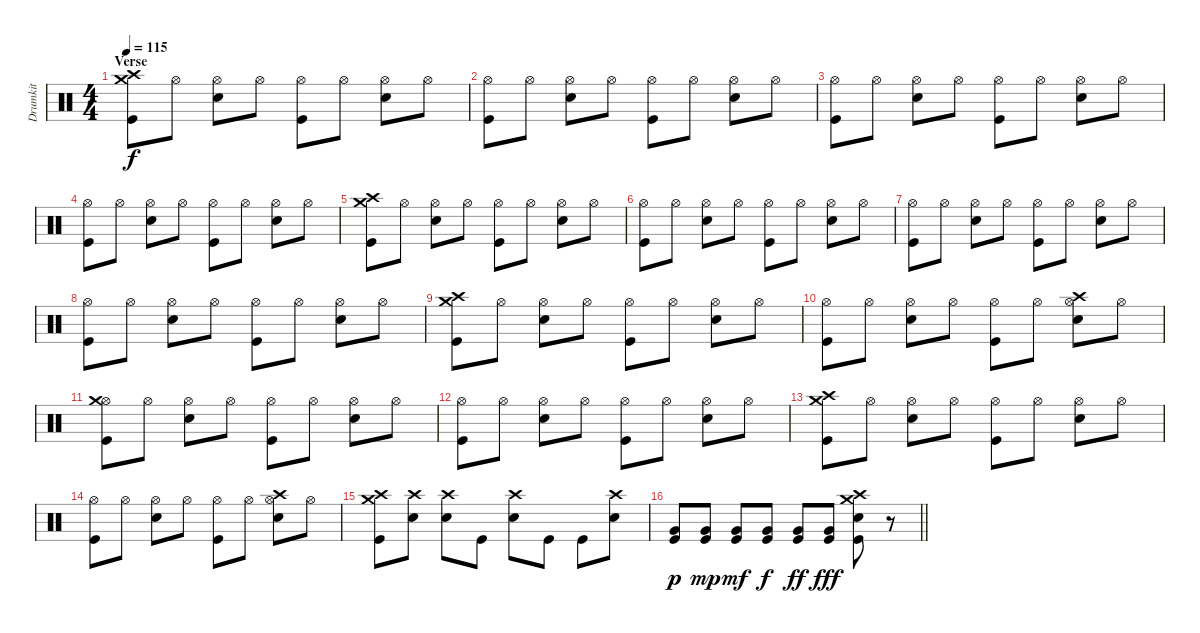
\track ("Drumkit" "Drumkit") {instrument percussion}
\staff {score}
\articulation defaults
\ts (4 4)
\section ("" "Verse")
\tempo 115
\clef neutral
\ks c
("Crash high (hit)" "Crash medium (hit)" "Kick (hit)").8{dy f} "Hi-Hat (open)".8 ("Hi-Hat (open)" "Snare (hit) 2").8 "Hi-Hat (open)".8 ("Hi-Hat (open)" "Kick (hit)").8 "Hi-Hat (open)".8 ("Hi-Hat (open)" "Snare (hit) 2").8 "Hi-Hat (open)".8 |
("Hi-Hat (open)" "Kick (hit)").8 "Hi-Hat (open)".8 ("Hi-Hat (open)" "Snare (hit) 2").8 "Hi-Hat (open)".8 ("Hi-Hat (open)" "Kick (hit)").8 "Hi-Hat (open)".8 ("Hi-Hat (open)" "Snare (hit) 2").8 "Hi-Hat (open)".8 |
("Hi-Hat (open)" "Kick (hit)").8 "Hi-Hat (open)".8 ("Hi-Hat (open)" "Snare (hit) 2").8 "Hi-Hat (open)".8 ("Hi-Hat (open)" "Kick (hit)").8 "Hi-Hat (open)".8 ("Hi-Hat (open)" "Snare (hit) 2").8 "Hi-Hat (open)".8 |
("Hi-Hat (open)" "Kick (hit)").8 "Hi-Hat (open)".8 ("Hi-Hat (open)" "Snare (hit) 2").8 "Hi-Hat (open)".8 ("Hi-Hat (open)" "Kick (hit)").8 "Hi-Hat (open)".8 ("Hi-Hat (open)" "Snare (hit) 2").8 "Hi-Hat (open)".8 |
("Crash high (hit)" "Crash medium (hit)" "Kick (hit)").8 "Hi-Hat (open)".8 ("Hi-Hat (open)" "Snare (hit) 2").8 "Hi-Hat (open)".8 ("Hi-Hat (open)" "Kick (hit)").8 "Hi-Hat (open)".8 ("Hi-Hat (open)" "Snare (hit) 2").8 "Hi-Hat (open)".8 |
("Hi-Hat (open)" "Kick (hit)").8 "Hi-Hat (open)".8 ("Hi-Hat (open)" "Snare (hit) 2").8 "Hi-Hat (open)".8 ("Hi-Hat (open)" "Kick (hit)").8 "Hi-Hat (open)".8 ("Hi-Hat (open)" "Snare (hit) 2").8 "Hi-Hat (open)".8 |
("Hi-Hat (open)" "Kick (hit)").8 "Hi-Hat (open)".8 ("Hi-Hat (open)" "Snare (hit) 2").8 "Hi-Hat (open)".8 ("Hi-Hat (open)" "Kick (hit)").8 "Hi-Hat (open)".8 ("Hi-Hat (open)" "Snare (hit) 2").8 "Hi-Hat (open)".8 |
("Hi-Hat (open)" "Kick (hit)").8 "Hi-Hat (open)".8 ("Hi-Hat (open)" "Snare (hit) 2").8 "Hi-Hat (open)".8 ("Hi-Hat (open)" "Kick (hit)").8 "Hi-Hat (open)".8 ("Hi-Hat (open)" "Snare (hit) 2").8 "Hi-Hat (open)".8 |
("Crash high (hit)" "Crash medium (hit)" "Kick (hit)").8 "Hi-Hat (open)".8 ("Hi-Hat (open)" "Snare (hit) 2").8 "Hi-Hat (open)".8 ("Hi-Hat (open)" "Kick (hit)").8 "Hi-Hat (open)".8 ("Hi-Hat (open)" "Snare (hit) 2").8 "Hi-Hat (open)".8 |
("Hi-Hat (open)" "Kick (hit)").8 "Hi-Hat (open)".8 ("Hi-Hat (open)" "Snare (hit) 2").8 "Hi-Hat (open)".8 ("Hi-Hat (open)" "Kick (hit)").8 "Hi-Hat (open)".8 ("Hi-Hat (open)" "Crash high (hit)" "Snare (hit) 2").8 "Hi-Hat (open)".8 |
("Hi-Hat (open)" "Crash medium (hit)" "Kick (hit)").8 "Hi-Hat (open)".8 ("Hi-Hat (open)" "Snare (hit) 2").8 "Hi-Hat (open)".8 ("Hi-Hat (open)" "Kick (hit)").8 "Hi-Hat (open)".8 ("Hi-Hat (open)" "Snare (hit) 2").8 "Hi-Hat (open)".8 |
("Hi-Hat (open)" "Kick (hit)").8 "Hi-Hat (open)".8 ("Hi-Hat (open)" "Snare (hit) 2").8 "Hi-Hat (open)".8 ("Hi-Hat (open)" "Kick (hit)").8 "Hi-Hat (open)".8 ("Hi-Hat (open)" "Snare (hit) 2").8 "Hi-Hat (open)".8 |
("Crash high (hit)" "Crash medium (hit)" "Kick (hit)").8 "Hi-Hat (open)".8 ("Hi-Hat (open)" "Snare (hit) 2").8 "Hi-Hat (open)".8 ("Hi-Hat (open)" "Kick (hit)").8 "Hi-Hat (open)".8 ("Hi-Hat (open)" "Snare (hit) 2").8 "Hi-Hat (open)".8 |
("Hi-Hat (open)" "Kick (hit)").8 "Hi-Hat (open)".8 ("Hi-Hat (open)" "Snare (hit) 2").8 "Hi-Hat (open)".8 ("Hi-Hat (open)" "Kick (hit)").8 "Hi-Hat (open)".8 ("Hi-Hat (open)" "Crash high (hit)" "Snare (hit) 2").8 "Hi-Hat (open)".8 |
("Crash high (hit)" "Crash medium (hit)" "Kick (hit)").8 ("Crash high (hit)" "Snare (hit) 2").8 ("Crash high (hit)" "Snare (hit) 2").8 "Kick (hit)".8 ("Crash high (hit)" "Snare (hit) 2").8 "Kick (hit)".8 "Kick (hit)".8 ("Crash high (hit)" "Snare (hit) 2").8 |
\barLineRight lightlight
("Very Low Tom (hit)" "Kick (hit)").8{dy p} ("Very Low Tom (hit)" "Kick (hit)").8{dy mp} ("Very Low Tom (hit)" "Kick (hit)").8{dy mf} ("Very Low Tom (hit)" "Kick (hit)").8{dy f} ("Very Low Tom (hit)" "Kick (hit)").8{dy ff} ("Very Low Tom (hit)" "Kick (hit)").8{dy fff} ("Kick (hit)" "Crash medium (hit)" "Crash high (hit)" "Snare (hit) 2").8 r.8
